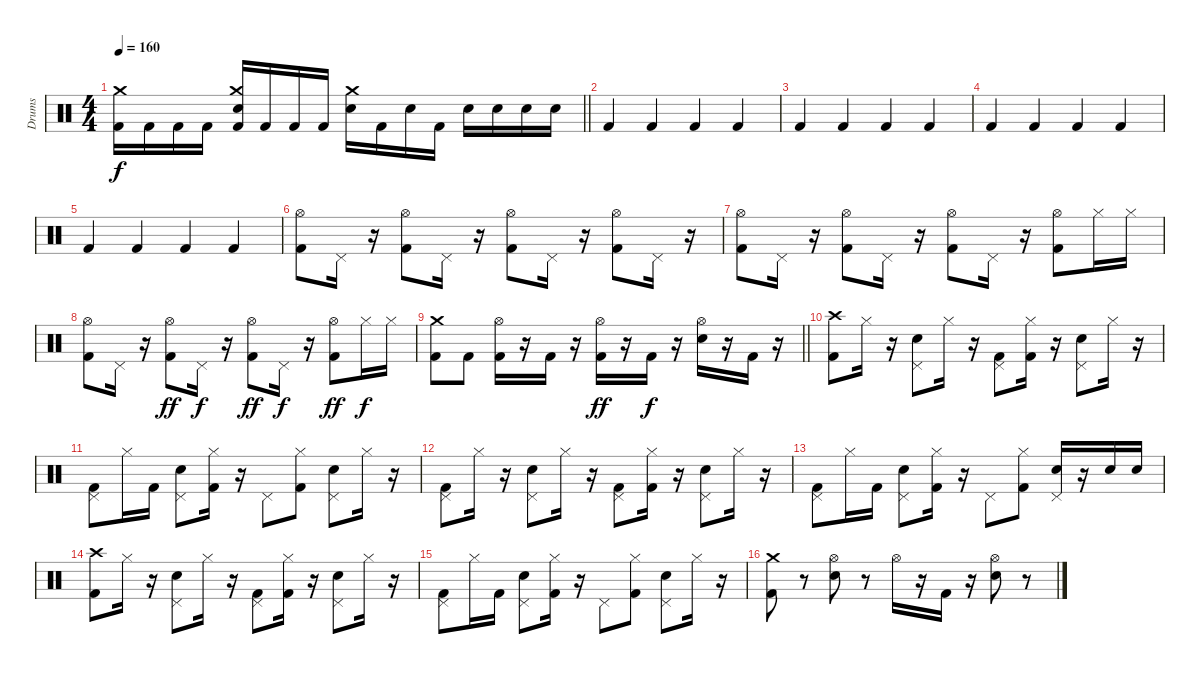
\track ("Drums" "Drums") {instrument percussion}
\staff {score}
\articulation defaults
\ts (4 4)
\tempo 160
\clef neutral
\barLineRight lightlight
\ks c
("Kick (hit) 2" "Crash medium (hit)").16{dy f} "Kick (hit) 2".16 "Kick (hit) 2".16 "Kick (hit) 2".16 ("Kick (hit) 2" "Snare (hit) 2" "Crash medium (hit)").16 "Kick (hit) 2".16 "Kick (hit) 2".16 "Kick (hit) 2".16 ("Snare (hit) 2" "Crash medium (hit)").16 "Kick (hit) 2".16 "Snare (hit) 2".16 "Kick (hit) 2".16 "Snare (hit) 2".16 "Snare (hit) 2".16 "Snare (hit) 2".16 "Snare (hit) 2".16 |
\section ("" " ")
"Kick (hit) 2".4 "Kick (hit) 2".4 "Kick (hit) 2".4 "Kick (hit) 2".4 |
"Kick (hit) 2".4 "Kick (hit) 2".4 "Kick (hit) 2".4 "Kick (hit) 2".4 |
"Kick (hit) 2".4 "Kick (hit) 2".4 "Kick (hit) 2".4 "Kick (hit) 2".4 |
"Kick (hit) 2".4 "Kick (hit) 2".4 "Kick (hit) 2".4 "Kick (hit) 2".4 |
("Kick (hit) 2" "Hi-Hat (open)").8 "Pedal Hi-Hat (hit)".16 r.16 ("Kick (hit) 2" "Hi-Hat (open)").8 "Pedal Hi-Hat (hit)".16 r.16 ("Kick (hit) 2" "Hi-Hat (open)").8 "Pedal Hi-Hat (hit)".16 r.16 ("Kick (hit) 2" "Hi-Hat (open)").8 "Pedal Hi-Hat (hit)".16 r.16 |
("Kick (hit) 2" "Hi-Hat (open)").8 "Pedal Hi-Hat (hit)".16 r.16 ("Kick (hit) 2" "Hi-Hat (open)").8 "Pedal Hi-Hat (hit)".16 r.16 ("Kick (hit) 2" "Hi-Hat (open)").8 "Pedal Hi-Hat (hit)".16 r.16 ("Kick (hit) 2" "Hi-Hat (open)").8 "Hi-Hat (closed)".16 "Hi-Hat (closed)".16 |
("Kick (hit) 2" "Hi-Hat (open)").8 "Pedal Hi-Hat (hit)".16 r.16 ("Kick (hit) 2" "Hi-Hat (open)").8{dy ff} "Pedal Hi-Hat (hit)".16{dy f} r.16 ("Kick (hit) 2" "Hi-Hat (open)").8{dy ff} "Pedal Hi-Hat (hit)".16{dy f} r.16 ("Kick (hit) 2" "Hi-Hat (open)").8{dy ff} "Hi-Hat (closed)".16{dy f} "Hi-Hat (closed)".16 |
\barLineRight lightlight
("Kick (hit) 2" "Crash medium (hit)").8 "Kick (hit) 2".8 ("Kick (hit) 2" "Hi-Hat (open)").16 r.16 "Kick (hit) 2".16 r.16 ("Kick (hit) 2" "Hi-Hat (open)").16{dy ff} r.16 "Kick (hit) 2".16{dy f} r.16 ("Snare (hit) 2" "Hi-Hat (open)").16 r.16 "Kick (hit) 2".16 r.16 |
\section ("" " ")
("Kick (hit) 2" "Crash high (hit)").8 "Hi-Hat (closed)".16 r.16 ("Snare (hit) 2" "Pedal Hi-Hat (hit)").8 "Hi-Hat (closed)".16 r.16 ("Kick (hit) 2" "Pedal Hi-Hat (hit)").8 ("Kick (hit) 2" "Hi-Hat (closed)").16 r.16 ("Snare (hit) 2" "Pedal Hi-Hat (hit)").8 "Hi-Hat (closed)".16 r.16 |
("Kick (hit) 2" "Pedal Hi-Hat (hit)").8 "Hi-Hat (closed)".16 "Kick (hit) 2".16 ("Snare (hit) 2" "Pedal Hi-Hat (hit)").8 ("Kick (hit) 2" "Hi-Hat (closed)").16 r.16 "Pedal Hi-Hat (hit)".8 ("Kick (hit) 2" "Hi-Hat (closed)").8 ("Snare (hit) 2" "Pedal Hi-Hat (hit)").8 "Hi-Hat (closed)".16 r.16 |
("Kick (hit) 2" "Pedal Hi-Hat (hit)").8 "Hi-Hat (closed)".16 r.16 ("Snare (hit) 2" "Pedal Hi-Hat (hit)").8 "Hi-Hat (closed)".16 r.16 ("Kick (hit) 2" "Pedal Hi-Hat (hit)").8 ("Kick (hit) 2" "Hi-Hat (closed)").16 r.16 ("Snare (hit) 2" "Pedal Hi-Hat (hit)").8 "Hi-Hat (closed)".16 r.16 |
("Kick (hit) 2" "Pedal Hi-Hat (hit)").8 "Hi-Hat (closed)".16 "Kick (hit) 2".16 ("Snare (hit) 2" "Pedal Hi-Hat (hit)").8 ("Kick (hit) 2" "Hi-Hat (closed)").16 r.16 "Pedal Hi-Hat (hit)".8 ("Kick (hit) 2" "Hi-Hat (closed)").8 ("Snare (hit) 2" "Pedal Hi-Hat (hit)").16 r.16 "Snare (hit) 2".16 "Snare (hit) 2".16 |
("Kick (hit) 2" "Crash high (hit)").8 "Hi-Hat (closed)".16 r.16 ("Snare (hit) 2" "Pedal Hi-Hat (hit)").8 "Hi-Hat (closed)".16 r.16 ("Kick (hit) 2" "Pedal Hi-Hat (hit)").8 ("Kick (hit) 2" "Hi-Hat (closed)").16 r.16 ("Snare (hit) 2" "Pedal Hi-Hat (hit)").8 "Hi-Hat (closed)".16 r.16 |
("Kick (hit) 2" "Pedal Hi-Hat (hit)").8 "Hi-Hat (closed)".16 "Kick (hit) 2".16 ("Snare (hit) 2" "Pedal Hi-Hat (hit)").8 ("Kick (hit) 2" "Hi-Hat (closed)").16 r.16 "Pedal Hi-Hat (hit)".8 ("Kick (hit) 2" "Hi-Hat (closed)").8 ("Snare (hit) 2" "Pedal Hi-Hat (hit)").8 "Hi-Hat (closed)".16 r.16 |
("Kick (hit) 2" "Crash medium (hit)").8 r.8 ("Snare (hit) 2" "Hi-Hat (open)").8 r.8 "Hi-Hat (open)".16 r.16 "Kick (hit) 2".16 r.16 ("Snare (hit) 2" "Hi-Hat (open)").8 r.8
